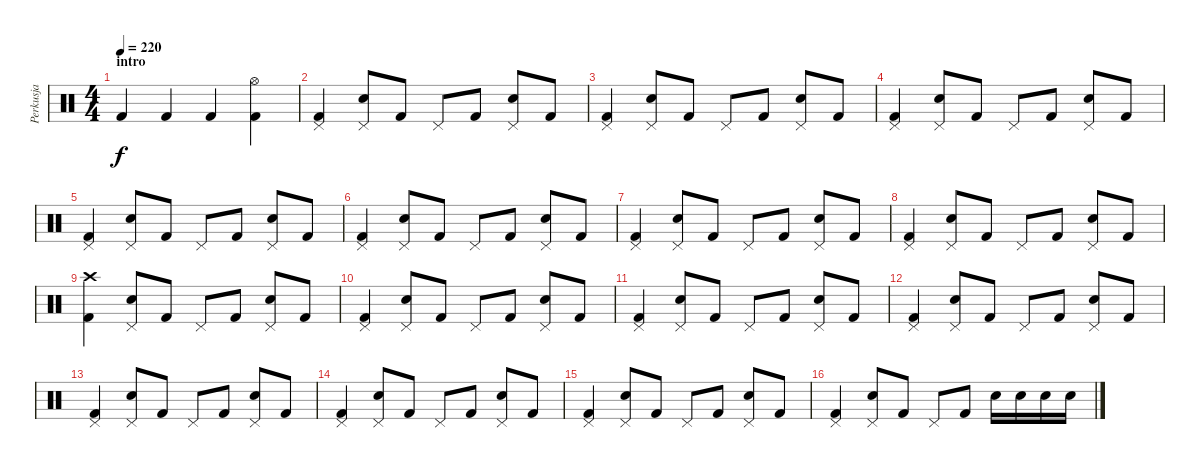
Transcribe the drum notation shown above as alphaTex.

\track ("Perkusja" "Perkusja") {instrument percussion}
\staff {score}
\articulation defaults
\ts (4 4)
\section ("" "intro")
\tempo 220
\clef neutral
\ks c "Kick (hit) 2".4{dy f} "Kick (hit) 2".4 "Kick (hit) 2".4
("Hi-Hat (open)" "Kick (hit) 2").4 |
("Pedal Hi-Hat (hit)" "Kick (hit) 2").4 ("Pedal Hi-Hat (hit)" "Snare (hit) 2").8 "Kick (hit) 2".8 "Pedal Hi-Hat (hit)".8 "Kick (hit) 2".8 ("Pedal Hi-Hat (hit)" "Snare (hit) 2").8 "Kick (hit) 2".8 |
("Pedal Hi-Hat (hit)" "Kick (hit) 2").4 ("Pedal Hi-Hat (hit)" "Snare (hit) 2").8 "Kick (hit) 2".8 "Pedal Hi-Hat (hit)".8 "Kick (hit) 2".8 ("Pedal Hi-Hat (hit)" "Snare (hit) 2").8 "Kick (hit) 2".8 |
("Pedal Hi-Hat (hit)" "Kick (hit) 2").4 ("Pedal Hi-Hat (hit)" "Snare (hit) 2").8 "Kick (hit) 2".8 "Pedal Hi-Hat (hit)".8 "Kick (hit) 2".8 ("Pedal Hi-Hat (hit)" "Snare (hit) 2").8 "Kick (hit) 2".8 |
("Pedal Hi-Hat (hit)" "Kick (hit) 2").4 ("Pedal Hi-Hat (hit)" "Snare (hit) 2").8 "Kick (hit) 2".8 "Pedal Hi-Hat (hit)".8 "Kick (hit) 2".8 ("Pedal Hi-Hat (hit)" "Snare (hit) 2").8 "Kick (hit) 2".8 |
("Pedal Hi-Hat (hit)" "Kick (hit) 2").4 ("Pedal Hi-Hat (hit)" "Snare (hit) 2").8 "Kick (hit) 2".8 "Pedal Hi-Hat (hit)".8 "Kick (hit) 2".8 ("Pedal Hi-Hat (hit)" "Snare (hit) 2").8 "Kick (hit) 2".8 |
("Pedal Hi-Hat (hit)" "Kick (hit) 2").4 ("Pedal Hi-Hat (hit)" "Snare (hit) 2").8 "Kick (hit) 2".8 "Pedal Hi-Hat (hit)".8 "Kick (hit) 2".8 ("Pedal Hi-Hat (hit)" "Snare (hit) 2").8 "Kick (hit) 2".8 |
("Pedal Hi-Hat (hit)" "Kick (hit) 2").4 ("Pedal Hi-Hat (hit)" "Snare (hit) 2").8 "Kick (hit) 2".8 "Pedal Hi-Hat (hit)".8 "Kick (hit) 2".8 ("Pedal Hi-Hat (hit)" "Snare (hit) 2").8 "Kick (hit) 2".8 |
("Crash high (hit)" "Kick (hit) 2").4 ("Pedal Hi-Hat (hit)" "Snare (hit) 2").8 "Kick (hit) 2".8 "Pedal Hi-Hat (hit)".8 "Kick (hit) 2".8 ("Pedal Hi-Hat (hit)" "Snare (hit) 2").8 "Kick (hit) 2".8 |
("Pedal Hi-Hat (hit)" "Kick (hit) 2").4 ("Pedal Hi-Hat (hit)" "Snare (hit) 2").8 "Kick (hit) 2".8 "Pedal Hi-Hat (hit)".8 "Kick (hit) 2".8 ("Pedal Hi-Hat (hit)" "Snare (hit) 2").8 "Kick (hit) 2".8 |
("Pedal Hi-Hat (hit)" "Kick (hit) 2").4 ("Pedal Hi-Hat (hit)" "Snare (hit) 2").8 "Kick (hit) 2".8 "Pedal Hi-Hat (hit)".8 "Kick (hit) 2".8 ("Pedal Hi-Hat (hit)" "Snare (hit) 2").8 "Kick (hit) 2".8 |
("Pedal Hi-Hat (hit)" "Kick (hit) 2").4 ("Pedal Hi-Hat (hit)" "Snare (hit) 2").8 "Kick (hit) 2".8 "Pedal Hi-Hat (hit)".8 "Kick (hit) 2".8 ("Pedal Hi-Hat (hit)" "Snare (hit) 2").8 "Kick (hit) 2".8 |
("Pedal Hi-Hat (hit)" "Kick (hit) 2").4 ("Pedal Hi-Hat (hit)" "Snare (hit) 2").8 "Kick (hit) 2".8 "Pedal Hi-Hat (hit)".8 "Kick (hit) 2".8 ("Pedal Hi-Hat (hit)" "Snare (hit) 2").8 "Kick (hit) 2".8 |
("Pedal Hi-Hat (hit)" "Kick (hit) 2").4 ("Pedal Hi-Hat (hit)" "Snare (hit) 2").8 "Kick (hit) 2".8 "Pedal Hi-Hat (hit)".8 "Kick (hit) 2".8 ("Pedal Hi-Hat (hit)" "Snare (hit) 2").8 "Kick (hit) 2".8 |
("Pedal Hi-Hat (hit)" "Kick (hit) 2").4 ("Pedal Hi-Hat (hit)" "Snare (hit) 2").8 "Kick (hit) 2".8 "Pedal Hi-Hat (hit)".8 "Kick (hit) 2".8 ("Pedal Hi-Hat (hit)" "Snare (hit) 2").8 "Kick (hit) 2".8 |
("Pedal Hi-Hat (hit)" "Kick (hit) 2").4 ("Pedal Hi-Hat (hit)" "Snare (hit) 2").8 "Kick (hit) 2".8 "Pedal Hi-Hat (hit)".8 "Kick (hit) 2".8 "Snare (hit) 2".16 "Snare (hit) 2".16 "Snare (hit) 2".16 "Snare (hit) 2".16
